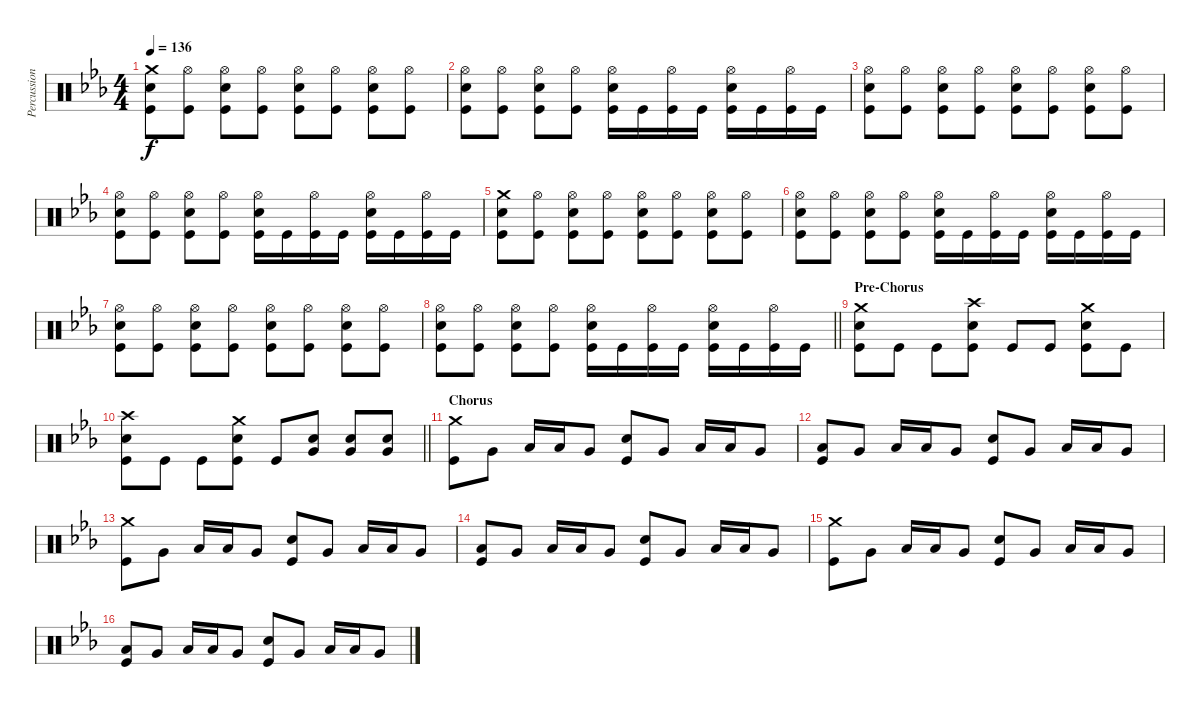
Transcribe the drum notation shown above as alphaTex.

\track ("Percussion" "Percussion") {instrument percussion}
\staff {score}
\articulation defaults
\ts (4 4)
\tempo 136
\clef neutral
\ks eb
("Crash medium (hit)" "Electric Snare (hit)" "Kick (hit)").8{dy f} ("Hi-Hat (open)" "Kick (hit)").8 ("Hi-Hat (open)" "Electric Snare (hit)" "Kick (hit)").8 ("Hi-Hat (open)" "Kick (hit)").8 ("Hi-Hat (open)" "Electric Snare (hit)" "Kick (hit)").8 ("Hi-Hat (open)" "Kick (hit)").8 ("Hi-Hat (open)" "Electric Snare (hit)" "Kick (hit)").8 ("Hi-Hat (open)" "Kick (hit)").8 |
("Hi-Hat (open)" "Electric Snare (hit)" "Kick (hit)").8 ("Hi-Hat (open)" "Kick (hit)").8 ("Hi-Hat (open)" "Electric Snare (hit)" "Kick (hit)").8 ("Hi-Hat (open)" "Kick (hit)").8 ("Hi-Hat (open)" "Electric Snare (hit)" "Kick (hit)").16 "Kick (hit)".16 ("Hi-Hat (open)" "Kick (hit)").16 "Kick (hit)".16 ("Hi-Hat (open)" "Electric Snare (hit)" "Kick (hit)").16 "Kick (hit)".16 ("Hi-Hat (open)" "Kick (hit)").16 "Kick (hit)".16 |
("Hi-Hat (open)" "Electric Snare (hit)" "Kick (hit)").8 ("Hi-Hat (open)" "Kick (hit)").8 ("Hi-Hat (open)" "Electric Snare (hit)" "Kick (hit)").8 ("Hi-Hat (open)" "Kick (hit)").8 ("Hi-Hat (open)" "Electric Snare (hit)" "Kick (hit)").8 ("Hi-Hat (open)" "Kick (hit)").8 ("Hi-Hat (open)" "Electric Snare (hit)" "Kick (hit)").8 ("Hi-Hat (open)" "Kick (hit)").8 |
("Hi-Hat (open)" "Electric Snare (hit)" "Kick (hit)").8 ("Hi-Hat (open)" "Kick (hit)").8 ("Hi-Hat (open)" "Electric Snare (hit)" "Kick (hit)").8 ("Hi-Hat (open)" "Kick (hit)").8 ("Hi-Hat (open)" "Electric Snare (hit)" "Kick (hit)").16 "Kick (hit)".16 ("Hi-Hat (open)" "Kick (hit)").16 "Kick (hit)".16 ("Hi-Hat (open)" "Electric Snare (hit)" "Kick (hit)").16 "Kick (hit)".16 ("Hi-Hat (open)" "Kick (hit)").16 "Kick (hit)".16 |
("Crash medium (hit)" "Electric Snare (hit)" "Kick (hit)").8 ("Hi-Hat (open)" "Kick (hit)").8 ("Hi-Hat (open)" "Electric Snare (hit)" "Kick (hit)").8 ("Hi-Hat (open)" "Kick (hit)").8 ("Hi-Hat (open)" "Electric Snare (hit)" "Kick (hit)").8 ("Hi-Hat (open)" "Kick (hit)").8 ("Hi-Hat (open)" "Electric Snare (hit)" "Kick (hit)").8 ("Hi-Hat (open)" "Kick (hit)").8 |
("Hi-Hat (open)" "Electric Snare (hit)" "Kick (hit)").8 ("Hi-Hat (open)" "Kick (hit)").8 ("Hi-Hat (open)" "Electric Snare (hit)" "Kick (hit)").8 ("Hi-Hat (open)" "Kick (hit)").8 ("Hi-Hat (open)" "Electric Snare (hit)" "Kick (hit)").16 "Kick (hit)".16 ("Hi-Hat (open)" "Kick (hit)").16 "Kick (hit)".16 ("Hi-Hat (open)" "Electric Snare (hit)" "Kick (hit)").16 "Kick (hit)".16 ("Hi-Hat (open)" "Kick (hit)").16 "Kick (hit)".16 |
("Hi-Hat (open)" "Electric Snare (hit)" "Kick (hit)").8 ("Hi-Hat (open)" "Kick (hit)").8 ("Hi-Hat (open)" "Electric Snare (hit)" "Kick (hit)").8 ("Hi-Hat (open)" "Kick (hit)").8 ("Hi-Hat (open)" "Electric Snare (hit)" "Kick (hit)").8 ("Hi-Hat (open)" "Kick (hit)").8 ("Hi-Hat (open)" "Electric Snare (hit)" "Kick (hit)").8 ("Hi-Hat (open)" "Kick (hit)").8 |
\barLineRight lightlight
("Hi-Hat (open)" "Electric Snare (hit)" "Kick (hit)").8 ("Hi-Hat (open)" "Kick (hit)").8 ("Hi-Hat (open)" "Electric Snare (hit)" "Kick (hit)").8 ("Hi-Hat (open)" "Kick (hit)").8 ("Hi-Hat (open)" "Electric Snare (hit)" "Kick (hit)").16 "Kick (hit)".16 ("Hi-Hat (open)" "Kick (hit)").16 "Kick (hit)".16 ("Hi-Hat (open)" "Electric Snare (hit)" "Kick (hit)").16 "Kick (hit)".16 ("Hi-Hat (open)" "Kick (hit)").16 "Kick (hit)".16 |
\section ("" "Pre-Chorus")
("Crash medium (hit)" "Electric Snare (hit)" "Kick (hit)").8 "Kick (hit)".8 "Kick (hit)".8 ("Crash high (hit)" "Electric Snare (hit)" "Kick (hit)").8 "Kick (hit)".8 "Kick (hit)".8 ("Crash medium (hit)" "Electric Snare (hit)" "Kick (hit)").8 "Kick (hit)".8 |
\barLineRight lightlight
("Crash high (hit)" "Electric Snare (hit)" "Kick (hit)").8 "Kick (hit)".8 "Kick (hit)".8 ("Crash medium (hit)" "Electric Snare (hit)" "Kick (hit)").8 "Kick (hit)".8 ("Very Low Tom (hit)" "Electric Snare (hit)").8 ("Very Low Tom (hit)" "Electric Snare (hit)").8 ("Very Low Tom (hit)" "Electric Snare (hit)").8 |
\section ("" "Chorus")
("Crash medium (hit)" "Kick (hit)").8 "Very Low Tom (hit)".8 "Low Tom (hit)".16 "Low Tom (hit)".16 "Very Low Tom (hit)".8 ("Electric Snare (hit)" "Kick (hit)").8 "Very Low Tom (hit)".8 "Low Tom (hit)".16 "Low Tom (hit)".16 "Very Low Tom (hit)".8 |
("Low Tom (hit)" "Kick (hit)").8 "Very Low Tom (hit)".8 "Low Tom (hit)".16 "Low Tom (hit)".16 "Very Low Tom (hit)".8 ("Electric Snare (hit)" "Kick (hit)").8 "Very Low Tom (hit)".8 "Low Tom (hit)".16 "Low Tom (hit)".16 "Very Low Tom (hit)".8 |
("Crash medium (hit)" "Kick (hit)").8 "Very Low Tom (hit)".8 "Low Tom (hit)".16 "Low Tom (hit)".16 "Very Low Tom (hit)".8 ("Electric Snare (hit)" "Kick (hit)").8 "Very Low Tom (hit)".8 "Low Tom (hit)".16 "Low Tom (hit)".16 "Very Low Tom (hit)".8 |
("Low Tom (hit)" "Kick (hit)").8 "Very Low Tom (hit)".8 "Low Tom (hit)".16 "Low Tom (hit)".16 "Very Low Tom (hit)".8 ("Electric Snare (hit)" "Kick (hit)").8 "Very Low Tom (hit)".8 "Low Tom (hit)".16 "Low Tom (hit)".16 "Very Low Tom (hit)".8 |
("Crash medium (hit)" "Kick (hit)").8 "Very Low Tom (hit)".8 "Low Tom (hit)".16 "Low Tom (hit)".16 "Very Low Tom (hit)".8 ("Electric Snare (hit)" "Kick (hit)").8 "Very Low Tom (hit)".8 "Low Tom (hit)".16 "Low Tom (hit)".16 "Very Low Tom (hit)".8 |
("Low Tom (hit)" "Kick (hit)").8 "Very Low Tom (hit)".8 "Low Tom (hit)".16 "Low Tom (hit)".16 "Very Low Tom (hit)".8 ("Electric Snare (hit)" "Kick (hit)").8 "Very Low Tom (hit)".8 "Low Tom (hit)".16 "Low Tom (hit)".16 "Very Low Tom (hit)".8
